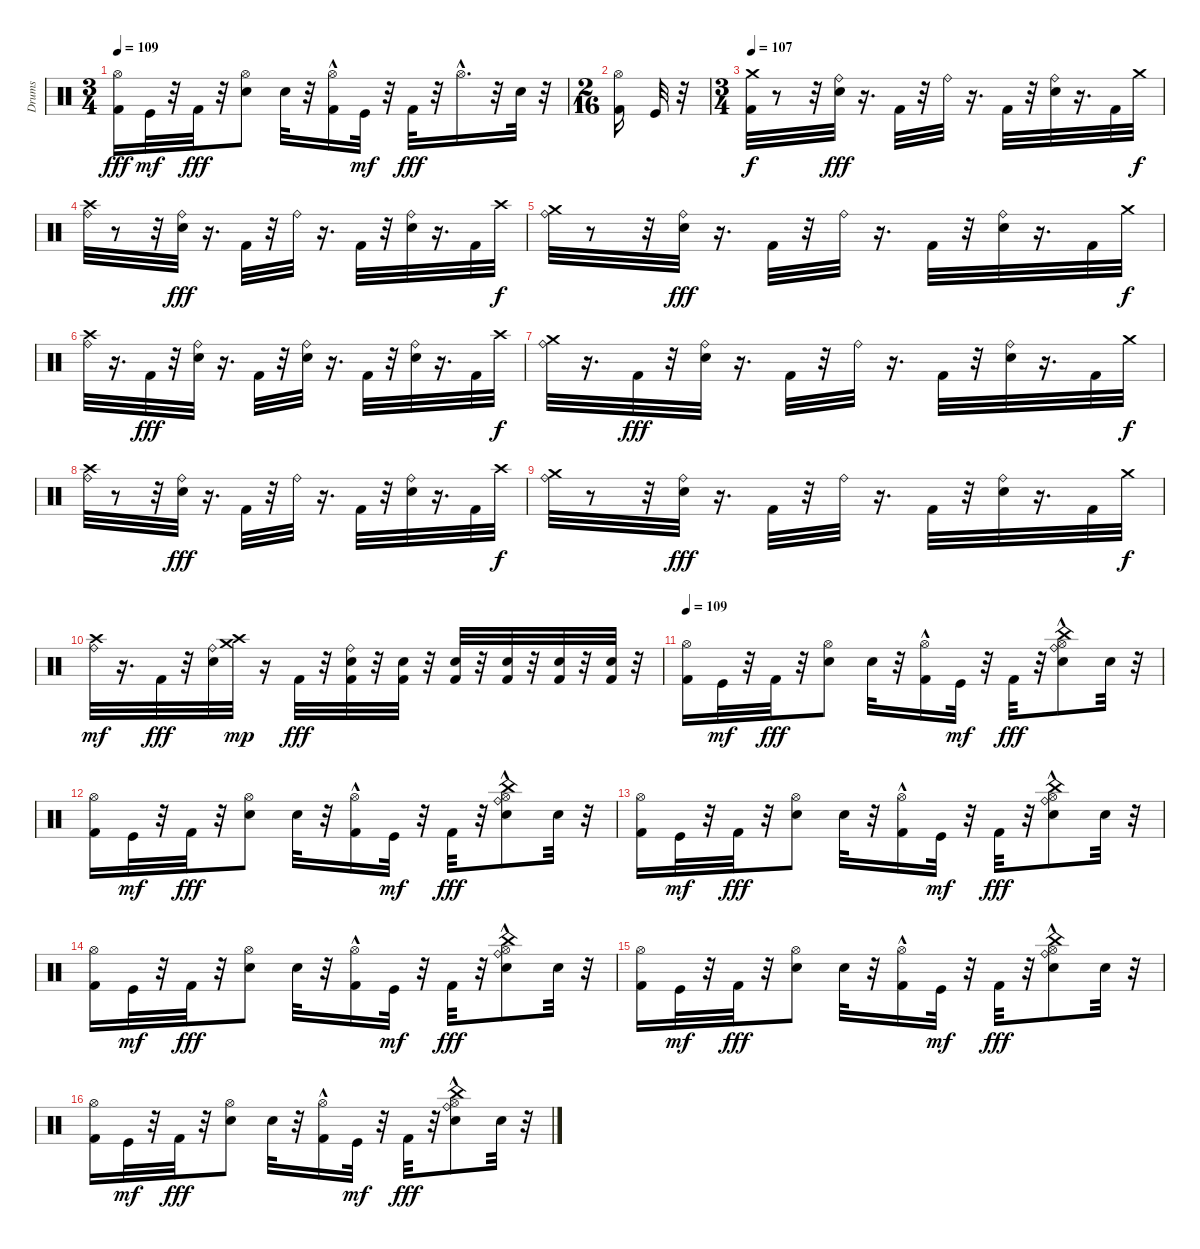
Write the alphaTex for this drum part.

\track ("Drums" "Drums") {instrument percussion}
\staff {score}
\articulation defaults
\ts (3 4)
\tempo 109
\clef neutral
\ks c
("Kick (hit) 2" "Hi-Hat (open)").16{dy fff} "Kick (hit)".32{dy mf} r.32 "Kick (hit) 2".32{dy fff} r.32 ("Electric Snare (hit)" "Hi-Hat (open)").8 "Electric Snare (hit)".32 r.32 ("Kick (hit) 2" "Hi-Hat (open)"{hac}).16 "Kick (hit)".32{dy mf} r.32 "Kick (hit) 2".32{dy fff} r.32 "Hi-Hat (open)"{hac}.16{d} r.32 "Electric Snare (hit)".32 r.32 |
\ts (2 16)
("Hi-Hat (open)" "Kick (hit) 2").16 "Kick (hit)".32 r.32 |
\ts (3 4)
\tempo 107
("Kick (hit) 2" "Crash medium (hit)").32{dy f} r.8 r.32 ("Ride (bell)" "Electric Snare (hit)").32{dy fff} r.16{d} "Kick (hit) 2".32 r.32 "Ride (bell)".32 r.16{d} "Kick (hit) 2".32 r.32 ("Ride (bell)" "Electric Snare (hit)").32 r.16{d} "Kick (hit) 2".32 "Crash medium (hit)".32{dy f} |
("Crash high (hit)" "Ride (bell)").32 r.8 r.32 ("Ride (bell)" "Electric Snare (hit)").32{dy fff} r.16{d} "Kick (hit) 2".32 r.32 "Ride (bell)".32 r.16{d} "Kick (hit) 2".32 r.32 ("Ride (bell)" "Electric Snare (hit)").32 r.16{d} "Kick (hit) 2".32 "Crash high (hit)".32{dy f} |
("Crash medium (hit)" "Ride (bell)").32 r.8 r.32 ("Ride (bell)" "Electric Snare (hit)").32{dy fff} r.16{d} "Kick (hit) 2".32 r.32 "Ride (bell)".32 r.16{d} "Kick (hit) 2".32 r.32 ("Ride (bell)" "Electric Snare (hit)").32 r.16{d} "Kick (hit) 2".32 "Crash medium (hit)".32{dy f} |
("Crash high (hit)" "Ride (bell)").32 r.16{d} "Kick (hit) 2".32{dy fff} r.32 ("Electric Snare (hit)" "Ride (bell)").32 r.16{d} "Kick (hit) 2".32 r.32 ("Electric Snare (hit)" "Ride (bell)").32 r.16{d} "Kick (hit) 2".32 r.32 ("Electric Snare (hit)" "Ride (bell)").32 r.16{d} "Kick (hit) 2".32 "Crash high (hit)".32{dy f} |
("Crash medium (hit)" "Ride (bell)").32 r.16{d} "Kick (hit) 2".32{dy fff} r.32 ("Electric Snare (hit)" "Ride (bell)").32 r.16{d} "Kick (hit) 2".32 r.32 "Ride (bell)".32 r.16{d} "Kick (hit) 2".32 r.32 ("Ride (bell)" "Electric Snare (hit)").32 r.16{d} "Kick (hit) 2".32 "Crash medium (hit)".32{dy f} |
("Crash high (hit)" "Ride (bell)").32 r.8 r.32 ("Ride (bell)" "Electric Snare (hit)").32{dy fff} r.16{d} "Kick (hit) 2".32 r.32 "Ride (bell)".32 r.16{d} "Kick (hit) 2".32 r.32 ("Ride (bell)" "Electric Snare (hit)").32 r.16{d} "Kick (hit) 2".32 "Crash high (hit)".32{dy f} |
("Crash medium (hit)" "Ride (bell)").32 r.8 r.32 ("Ride (bell)" "Electric Snare (hit)").32{dy fff} r.16{d} "Kick (hit) 2".32 r.32 "Ride (bell)".32 r.16{d} "Kick (hit) 2".32 r.32 ("Ride (bell)" "Electric Snare (hit)").32 r.16{d} "Kick (hit) 2".32 "Crash medium (hit)".32{dy f} |
("Crash high (hit)" "Ride (bell)").32{dy mf} r.16{d} "Kick (hit) 2".32{dy fff} r.32 ("Electric Snare (hit)" "Ride (bell)").32 ("Crash high (hit)" "Crash medium (hit)").32{dy mp} r.16 "Kick (hit) 2".32{dy fff} r.32 ("Kick (hit) 2" "Electric Snare (hit)" "Ride (bell)").32 r.32 ("Kick (hit) 2" "Electric Snare (hit)").32 r.32 ("Kick (hit) 2" "Electric Snare (hit)").32 r.32 ("Kick (hit) 2" "Electric Snare (hit)").32 r.32 ("Kick (hit) 2" "Electric Snare (hit)").32 r.32 ("Kick (hit) 2" "Electric Snare (hit)").32 r.32 |
\tempo 109
("Kick (hit) 2" "Hi-Hat (open)").16 "Kick (hit)".32{dy mf} r.32 "Kick (hit) 2".32{dy fff} r.32 ("Electric Snare (hit)" "Hi-Hat (open)").8 "Electric Snare (hit)".32 r.32 ("Kick (hit) 2" "Hi-Hat (open)"{hac}).16 "Kick (hit)".32{dy mf} r.32 "Kick (hit) 2".32{dy fff} r.32 ("Ride (bell)" "Electric Snare (hit)" "Hi-Hat (open)"{hac} "China (hit)").8 "Electric Snare (hit)".32 r.32 |
("Kick (hit) 2" "Hi-Hat (open)").16 "Kick (hit)".32{dy mf} r.32 "Kick (hit) 2".32{dy fff} r.32 ("Electric Snare (hit)" "Hi-Hat (open)").8 "Electric Snare (hit)".32 r.32 ("Kick (hit) 2" "Hi-Hat (open)"{hac}).16 "Kick (hit)".32{dy mf} r.32 "Kick (hit) 2".32{dy fff} r.32 ("Ride (bell)" "Electric Snare (hit)" "Hi-Hat (open)"{hac} "China (hit)").8 "Electric Snare (hit)".32 r.32 |
("Kick (hit) 2" "Hi-Hat (open)").16 "Kick (hit)".32{dy mf} r.32 "Kick (hit) 2".32{dy fff} r.32 ("Electric Snare (hit)" "Hi-Hat (open)").8 "Electric Snare (hit)".32 r.32 ("Kick (hit) 2" "Hi-Hat (open)"{hac}).16 "Kick (hit)".32{dy mf} r.32 "Kick (hit) 2".32{dy fff} r.32 ("Ride (bell)" "Electric Snare (hit)" "Hi-Hat (open)"{hac} "China (hit)").8 "Electric Snare (hit)".32 r.32 |
("Kick (hit) 2" "Hi-Hat (open)").16 "Kick (hit)".32{dy mf} r.32 "Kick (hit) 2".32{dy fff} r.32 ("Electric Snare (hit)" "Hi-Hat (open)").8 "Electric Snare (hit)".32 r.32 ("Kick (hit) 2" "Hi-Hat (open)"{hac}).16 "Kick (hit)".32{dy mf} r.32 "Kick (hit) 2".32{dy fff} r.32 ("Ride (bell)" "Electric Snare (hit)" "Hi-Hat (open)"{hac} "China (hit)").8 "Electric Snare (hit)".32 r.32 |
("Kick (hit) 2" "Hi-Hat (open)").16 "Kick (hit)".32{dy mf} r.32 "Kick (hit) 2".32{dy fff} r.32 ("Electric Snare (hit)" "Hi-Hat (open)").8 "Electric Snare (hit)".32 r.32 ("Kick (hit) 2" "Hi-Hat (open)"{hac}).16 "Kick (hit)".32{dy mf} r.32 "Kick (hit) 2".32{dy fff} r.32 ("Ride (bell)" "Electric Snare (hit)" "Hi-Hat (open)"{hac} "China (hit)").8 "Electric Snare (hit)".32 r.32 |
("Kick (hit) 2" "Hi-Hat (open)").16 "Kick (hit)".32{dy mf} r.32 "Kick (hit) 2".32{dy fff} r.32 ("Electric Snare (hit)" "Hi-Hat (open)").8 "Electric Snare (hit)".32 r.32 ("Kick (hit) 2" "Hi-Hat (open)"{hac}).16 "Kick (hit)".32{dy mf} r.32 "Kick (hit) 2".32{dy fff} r.32 ("Ride (bell)" "Electric Snare (hit)" "Hi-Hat (open)"{hac} "China (hit)").8 "Electric Snare (hit)".32 r.32
